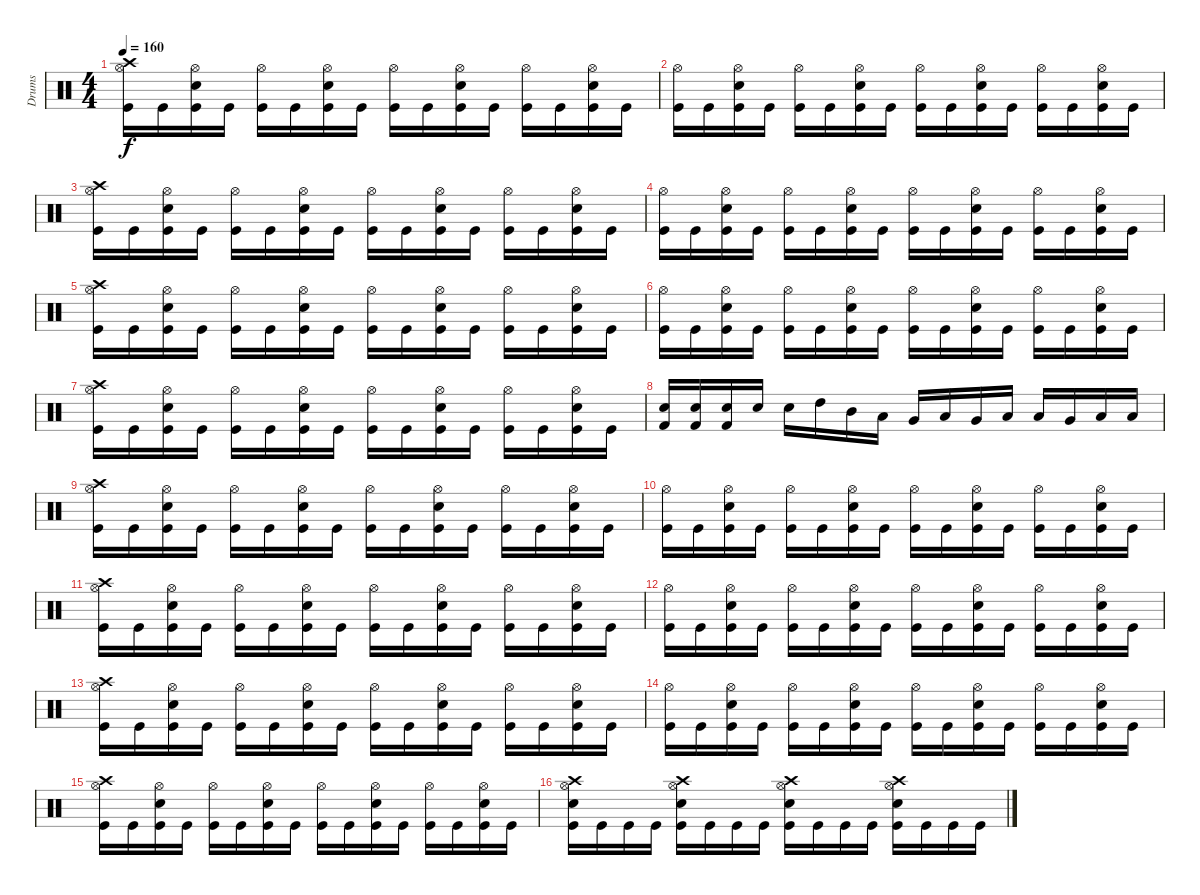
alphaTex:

\track ("Drums" "Drums") {instrument percussion}
\staff {score}
\articulation defaults
\ts (4 4)
\tempo 160
\clef neutral
\ks c
("Crash high (hit)" "Hi-Hat (open)" "Kick (hit)").16{dy f} "Kick (hit)".16 ("Hi-Hat (open)" "Electric Snare (hit)" "Kick (hit)").16 "Kick (hit)".16 ("Hi-Hat (open)" "Kick (hit)").16 "Kick (hit)".16 ("Hi-Hat (open)" "Electric Snare (hit)" "Kick (hit)").16 "Kick (hit)".16 ("Hi-Hat (open)" "Kick (hit)").16 "Kick (hit)".16 ("Hi-Hat (open)" "Electric Snare (hit)" "Kick (hit)").16 "Kick (hit)".16 ("Hi-Hat (open)" "Kick (hit)").16 "Kick (hit)".16 ("Hi-Hat (open)" "Electric Snare (hit)" "Kick (hit)").16 "Kick (hit)".16 |
("Hi-Hat (open)" "Kick (hit)").16 "Kick (hit)".16 ("Hi-Hat (open)" "Electric Snare (hit)" "Kick (hit)").16 "Kick (hit)".16 ("Hi-Hat (open)" "Kick (hit)").16 "Kick (hit)".16 ("Hi-Hat (open)" "Electric Snare (hit)" "Kick (hit)").16 "Kick (hit)".16 ("Hi-Hat (open)" "Kick (hit)").16 "Kick (hit)".16 ("Hi-Hat (open)" "Electric Snare (hit)" "Kick (hit)").16 "Kick (hit)".16 ("Hi-Hat (open)" "Kick (hit)").16 "Kick (hit)".16 ("Hi-Hat (open)" "Electric Snare (hit)" "Kick (hit)").16 "Kick (hit)".16 |
("Crash high (hit)" "Hi-Hat (open)" "Kick (hit)").16 "Kick (hit)".16 ("Hi-Hat (open)" "Electric Snare (hit)" "Kick (hit)").16 "Kick (hit)".16 ("Hi-Hat (open)" "Kick (hit)").16 "Kick (hit)".16 ("Hi-Hat (open)" "Electric Snare (hit)" "Kick (hit)").16 "Kick (hit)".16 ("Hi-Hat (open)" "Kick (hit)").16 "Kick (hit)".16 ("Hi-Hat (open)" "Electric Snare (hit)" "Kick (hit)").16 "Kick (hit)".16 ("Hi-Hat (open)" "Kick (hit)").16 "Kick (hit)".16 ("Hi-Hat (open)" "Electric Snare (hit)" "Kick (hit)").16 "Kick (hit)".16 |
("Hi-Hat (open)" "Kick (hit)").16 "Kick (hit)".16 ("Hi-Hat (open)" "Electric Snare (hit)" "Kick (hit)").16 "Kick (hit)".16 ("Hi-Hat (open)" "Kick (hit)").16 "Kick (hit)".16 ("Hi-Hat (open)" "Electric Snare (hit)" "Kick (hit)").16 "Kick (hit)".16 ("Hi-Hat (open)" "Kick (hit)").16 "Kick (hit)".16 ("Hi-Hat (open)" "Electric Snare (hit)" "Kick (hit)").16 "Kick (hit)".16 ("Hi-Hat (open)" "Kick (hit)").16 "Kick (hit)".16 ("Hi-Hat (open)" "Electric Snare (hit)" "Kick (hit)").16 "Kick (hit)".16 |
("Crash high (hit)" "Hi-Hat (open)" "Kick (hit)").16 "Kick (hit)".16 ("Hi-Hat (open)" "Electric Snare (hit)" "Kick (hit)").16 "Kick (hit)".16 ("Hi-Hat (open)" "Kick (hit)").16 "Kick (hit)".16 ("Hi-Hat (open)" "Electric Snare (hit)" "Kick (hit)").16 "Kick (hit)".16 ("Hi-Hat (open)" "Kick (hit)").16 "Kick (hit)".16 ("Hi-Hat (open)" "Electric Snare (hit)" "Kick (hit)").16 "Kick (hit)".16 ("Hi-Hat (open)" "Kick (hit)").16 "Kick (hit)".16 ("Hi-Hat (open)" "Electric Snare (hit)" "Kick (hit)").16 "Kick (hit)".16 |
("Hi-Hat (open)" "Kick (hit)").16 "Kick (hit)".16 ("Hi-Hat (open)" "Electric Snare (hit)" "Kick (hit)").16 "Kick (hit)".16 ("Hi-Hat (open)" "Kick (hit)").16 "Kick (hit)".16 ("Hi-Hat (open)" "Electric Snare (hit)" "Kick (hit)").16 "Kick (hit)".16 ("Hi-Hat (open)" "Kick (hit)").16 "Kick (hit)".16 ("Hi-Hat (open)" "Electric Snare (hit)" "Kick (hit)").16 "Kick (hit)".16 ("Hi-Hat (open)" "Kick (hit)").16 "Kick (hit)".16 ("Hi-Hat (open)" "Electric Snare (hit)" "Kick (hit)").16 "Kick (hit)".16 |
("Crash high (hit)" "Hi-Hat (open)" "Kick (hit)").16 "Kick (hit)".16 ("Hi-Hat (open)" "Electric Snare (hit)" "Kick (hit)").16 "Kick (hit)".16 ("Hi-Hat (open)" "Kick (hit)").16 "Kick (hit)".16 ("Hi-Hat (open)" "Electric Snare (hit)" "Kick (hit)").16 "Kick (hit)".16 ("Hi-Hat (open)" "Kick (hit)").16 "Kick (hit)".16 ("Hi-Hat (open)" "Electric Snare (hit)" "Kick (hit)").16 "Kick (hit)".16 ("Hi-Hat (open)" "Kick (hit)").16 "Kick (hit)".16 ("Hi-Hat (open)" "Electric Snare (hit)" "Kick (hit)").16 "Kick (hit)".16 |
("Snare (hit) 2" "Kick (hit) 2").16 ("Electric Snare (hit)" "Kick (hit) 2").16 ("Electric Snare (hit)" "Kick (hit) 2").16 "Snare (hit) 2".16 "Snare (hit) 2".16 "High Tom (hit)".16 "Mid Tom (hit)".16 "Low Tom (hit)".16 "Very Low Tom (hit)".16 "Low Tom (hit)".16 "Very Low Tom (hit)".16 "Low Floor Tom (hit)".16 "Low Tom (hit)".16 "Very Low Tom (hit)".16 "Low Floor Tom (hit)".16 "Low Floor Tom (hit)".16 |
("Crash high (hit)" "Hi-Hat (open)" "Kick (hit)").16 "Kick (hit)".16 ("Hi-Hat (open)" "Electric Snare (hit)" "Kick (hit)").16 "Kick (hit)".16 ("Hi-Hat (open)" "Kick (hit)").16 "Kick (hit)".16 ("Hi-Hat (open)" "Electric Snare (hit)" "Kick (hit)").16 "Kick (hit)".16 ("Hi-Hat (open)" "Kick (hit)").16 "Kick (hit)".16 ("Hi-Hat (open)" "Electric Snare (hit)" "Kick (hit)").16 "Kick (hit)".16 ("Hi-Hat (open)" "Kick (hit)").16 "Kick (hit)".16 ("Hi-Hat (open)" "Electric Snare (hit)" "Kick (hit)").16 "Kick (hit)".16 |
("Hi-Hat (open)" "Kick (hit)").16 "Kick (hit)".16 ("Hi-Hat (open)" "Electric Snare (hit)" "Kick (hit)").16 "Kick (hit)".16 ("Hi-Hat (open)" "Kick (hit)").16 "Kick (hit)".16 ("Hi-Hat (open)" "Electric Snare (hit)" "Kick (hit)").16 "Kick (hit)".16 ("Hi-Hat (open)" "Kick (hit)").16 "Kick (hit)".16 ("Hi-Hat (open)" "Electric Snare (hit)" "Kick (hit)").16 "Kick (hit)".16 ("Hi-Hat (open)" "Kick (hit)").16 "Kick (hit)".16 ("Hi-Hat (open)" "Electric Snare (hit)" "Kick (hit)").16 "Kick (hit)".16 |
("Crash high (hit)" "Hi-Hat (open)" "Kick (hit)").16 "Kick (hit)".16 ("Hi-Hat (open)" "Electric Snare (hit)" "Kick (hit)").16 "Kick (hit)".16 ("Hi-Hat (open)" "Kick (hit)").16 "Kick (hit)".16 ("Hi-Hat (open)" "Electric Snare (hit)" "Kick (hit)").16 "Kick (hit)".16 ("Hi-Hat (open)" "Kick (hit)").16 "Kick (hit)".16 ("Hi-Hat (open)" "Electric Snare (hit)" "Kick (hit)").16 "Kick (hit)".16 ("Hi-Hat (open)" "Kick (hit)").16 "Kick (hit)".16 ("Hi-Hat (open)" "Electric Snare (hit)" "Kick (hit)").16 "Kick (hit)".16 |
("Hi-Hat (open)" "Kick (hit)").16 "Kick (hit)".16 ("Hi-Hat (open)" "Electric Snare (hit)" "Kick (hit)").16 "Kick (hit)".16 ("Hi-Hat (open)" "Kick (hit)").16 "Kick (hit)".16 ("Hi-Hat (open)" "Electric Snare (hit)" "Kick (hit)").16 "Kick (hit)".16 ("Hi-Hat (open)" "Kick (hit)").16 "Kick (hit)".16 ("Hi-Hat (open)" "Electric Snare (hit)" "Kick (hit)").16 "Kick (hit)".16 ("Hi-Hat (open)" "Kick (hit)").16 "Kick (hit)".16 ("Hi-Hat (open)" "Electric Snare (hit)" "Kick (hit)").16 "Kick (hit)".16 |
("Crash high (hit)" "Hi-Hat (open)" "Kick (hit)").16 "Kick (hit)".16 ("Hi-Hat (open)" "Electric Snare (hit)" "Kick (hit)").16 "Kick (hit)".16 ("Hi-Hat (open)" "Kick (hit)").16 "Kick (hit)".16 ("Hi-Hat (open)" "Electric Snare (hit)" "Kick (hit)").16 "Kick (hit)".16 ("Hi-Hat (open)" "Kick (hit)").16 "Kick (hit)".16 ("Hi-Hat (open)" "Electric Snare (hit)" "Kick (hit)").16 "Kick (hit)".16 ("Hi-Hat (open)" "Kick (hit)").16 "Kick (hit)".16 ("Hi-Hat (open)" "Electric Snare (hit)" "Kick (hit)").16 "Kick (hit)".16 |
("Hi-Hat (open)" "Kick (hit)").16 "Kick (hit)".16 ("Hi-Hat (open)" "Electric Snare (hit)" "Kick (hit)").16 "Kick (hit)".16 ("Hi-Hat (open)" "Kick (hit)").16 "Kick (hit)".16 ("Hi-Hat (open)" "Electric Snare (hit)" "Kick (hit)").16 "Kick (hit)".16 ("Hi-Hat (open)" "Kick (hit)").16 "Kick (hit)".16 ("Hi-Hat (open)" "Electric Snare (hit)" "Kick (hit)").16 "Kick (hit)".16 ("Hi-Hat (open)" "Kick (hit)").16 "Kick (hit)".16 ("Hi-Hat (open)" "Electric Snare (hit)" "Kick (hit)").16 "Kick (hit)".16 |
("Crash high (hit)" "Hi-Hat (open)" "Kick (hit)").16 "Kick (hit)".16 ("Hi-Hat (open)" "Electric Snare (hit)" "Kick (hit)").16 "Kick (hit)".16 ("Hi-Hat (open)" "Kick (hit)").16 "Kick (hit)".16 ("Hi-Hat (open)" "Electric Snare (hit)" "Kick (hit)").16 "Kick (hit)".16 ("Hi-Hat (open)" "Kick (hit)").16 "Kick (hit)".16 ("Hi-Hat (open)" "Electric Snare (hit)" "Kick (hit)").16 "Kick (hit)".16 ("Hi-Hat (open)" "Kick (hit)").16 "Kick (hit)".16 ("Hi-Hat (open)" "Electric Snare (hit)" "Kick (hit)").16 "Kick (hit)".16 |
("Electric Snare (hit)" "Crash high (hit)" "Hi-Hat (open)" "Kick (hit)").16 "Kick (hit)".16 "Kick (hit)".16 "Kick (hit)".16 ("Electric Snare (hit)" "Crash high (hit)" "Hi-Hat (open)" "Kick (hit)").16 "Kick (hit)".16 "Kick (hit)".16 "Kick (hit)".16 ("Electric Snare (hit)" "Crash high (hit)" "Hi-Hat (open)" "Kick (hit)").16 "Kick (hit)".16 "Kick (hit)".16 "Kick (hit)".16 ("Crash high (hit)" "Electric Snare (hit)" "Hi-Hat (open)" "Kick (hit)").16 "Kick (hit)".16 "Kick (hit)".16 "Kick (hit)".16
